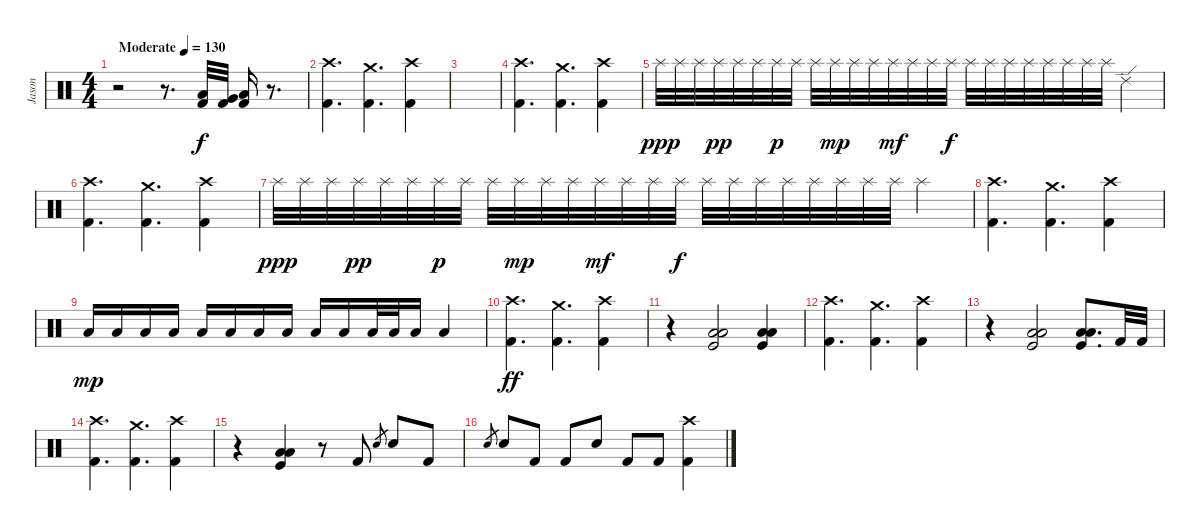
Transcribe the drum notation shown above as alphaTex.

\track ("Jason" "Jason") {instrument percussion}
\staff {score}
\articulation defaults
\ts (4 4)
\tempo (130 "Moderate")
\clef neutral
\ks c
r.2{dy f} r.8{d} ("Low Tom (hit)" "Kick (hit) 2").32 ("Very Low Tom (hit)" "Kick (hit) 2").32 ("Low Floor Tom (hit)" "Kick (hit) 2").16 r.8{d} |
("Crash high (hit)" "Kick (hit) 2").4{d} ("Crash medium (hit)" "Kick (hit) 2").4{d} ("Crash high (hit)" "Kick (hit) 2").4 |
|
("Crash high (hit)" "Kick (hit) 2").4{d} ("Crash medium (hit)" "Kick (hit) 2").4{d} ("Crash high (hit)" "Kick (hit) 2").4 |
"Splash (hit)".32{dy ppp} "Splash (hit)".32 "Splash (hit)".32 "Splash (hit)".32{dy pp} "Splash (hit)".32 "Splash (hit)".32 "Splash (hit)".32{dy p} "Splash (hit)".32 "Splash (hit)".32 "Splash (hit)".32{dy mp} "Splash (hit)".32 "Splash (hit)".32 "Splash (hit)".32{dy mf} "Splash (hit)".32 "Splash (hit)".32 "Splash (hit)".32{dy f} "Splash (hit)".32 "Splash (hit)".32 "Splash (hit)".32 "Splash (hit)".32 "Splash (hit)".32 "Splash (hit)".32 "Splash (hit)".32 "Splash (hit)".32 "Ride (edge) 2".4 |
("Crash high (hit)" "Kick (hit) 2").4{d} ("Crash medium (hit)" "Kick (hit) 2").4{d} ("Crash high (hit)" "Kick (hit) 2").4 |
"Splash (hit)".32{dy ppp} "Splash (hit)".32 "Splash (hit)".32 "Splash (hit)".32{dy pp} "Splash (hit)".32 "Splash (hit)".32 "Splash (hit)".32{dy p} "Splash (hit)".32 "Splash (hit)".32 "Splash (hit)".32{dy mp} "Splash (hit)".32 "Splash (hit)".32 "Splash (hit)".32{dy mf} "Splash (hit)".32 "Splash (hit)".32 "Splash (hit)".32{dy f} "Splash (hit)".32 "Splash (hit)".32 "Splash (hit)".32 "Splash (hit)".32 "Splash (hit)".32 "Splash (hit)".32 "Splash (hit)".32 "Splash (hit)".32 "Splash (hit)".4 |
("Crash high (hit)" "Kick (hit) 2").4{d} ("Crash medium (hit)" "Kick (hit) 2").4{d} ("Crash high (hit)" "Kick (hit) 2").4 |
"Low Floor Tom (hit)".16{dy mp} "Low Floor Tom (hit)".16 "Low Floor Tom (hit)".16 "Low Floor Tom (hit)".16 "Low Floor Tom (hit)".16 "Low Floor Tom (hit)".16 "Low Floor Tom (hit)".16 "Low Floor Tom (hit)".16 "Low Floor Tom (hit)".16 "Low Floor Tom (hit)".16 "Low Floor Tom (hit)".32 "Low Floor Tom (hit)".32 "Low Floor Tom (hit)".16 "Low Floor Tom (hit)".4 |
("Crash high (hit)" "Kick (hit) 2").4{d dy ff} ("Crash medium (hit)" "Kick (hit) 2").4{d} ("Crash high (hit)" "Kick (hit) 2").4 |
r.4 ("Low Tom (hit)" "Low Floor Tom (hit)" "Kick (hit)").2 ("Low Tom (hit)" "Low Floor Tom (hit)" "Kick (hit)").4 |
("Crash high (hit)" "Kick (hit) 2").4{d} ("Crash medium (hit)" "Kick (hit) 2").4{d} ("Crash high (hit)" "Kick (hit) 2").4 |
r.4 ("Low Tom (hit)" "Low Floor Tom (hit)" "Kick (hit)").2 ("Low Tom (hit)" "Low Floor Tom (hit)" "Kick (hit)").8{d} "Kick (hit) 2".32 "Kick (hit) 2".32 |
("Crash high (hit)" "Kick (hit) 2").4{d} ("Crash medium (hit)" "Kick (hit) 2").4{d} ("Crash high (hit)" "Kick (hit) 2").4 |
r.4 ("Low Tom (hit)" "Low Floor Tom (hit)" "Kick (hit)").4 r.8 "Kick (hit) 2".8 "Electric Snare (hit)".8{gr} "Electric Snare (hit)".8 "Kick (hit) 2".8 |
"Electric Snare (hit)".8{gr} "Electric Snare (hit)".8 "Kick (hit) 2".8 "Kick (hit) 2".8 "Electric Snare (hit)".8 "Kick (hit) 2".8 "Kick (hit) 2".8 ("Crash high (hit)" "Kick (hit) 2").4
